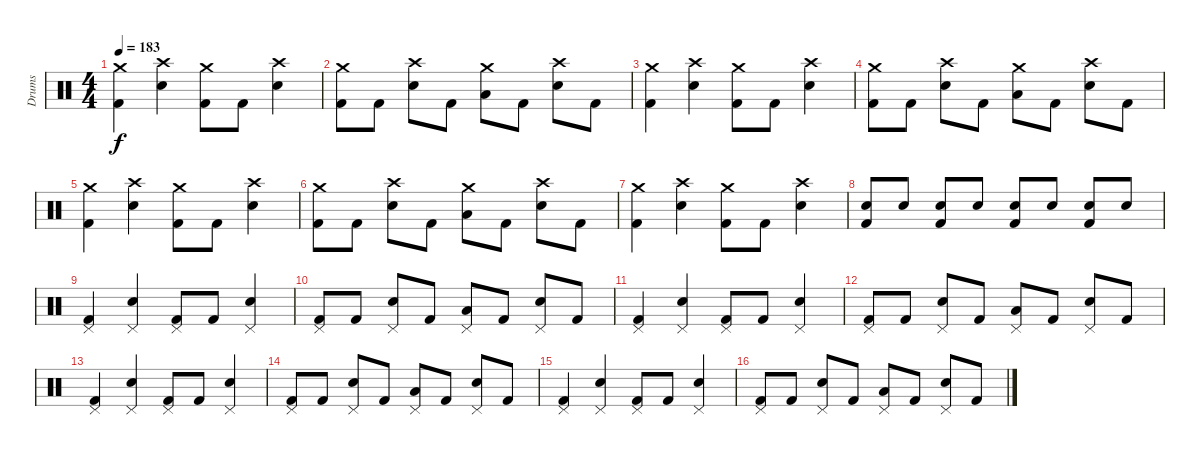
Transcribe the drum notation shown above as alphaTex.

\track ("Drums" "Drums") {instrument percussion}
\staff {score}
\articulation defaults
\ts (4 4)
\tempo 183
\clef neutral
\ks c
("Kick (hit) 2" "Crash medium (hit)").4{dy f} ("Snare (hit) 2" "Crash high (hit)").4 ("Kick (hit) 2" "Crash medium (hit)").8 "Kick (hit) 2".8 ("Snare (hit) 2" "Crash high (hit)").4 |
("Kick (hit) 2" "Crash medium (hit)").8 "Kick (hit) 2".8 ("Snare (hit) 2" "Crash high (hit)").8 "Kick (hit) 2".8 ("Low Tom (hit)" "Crash medium (hit)").8 "Kick (hit) 2".8 ("Snare (hit) 2" "Crash high (hit)").8 "Kick (hit) 2".8 |
("Kick (hit) 2" "Crash medium (hit)").4 ("Snare (hit) 2" "Crash high (hit)").4 ("Kick (hit) 2" "Crash medium (hit)").8 "Kick (hit) 2".8 ("Snare (hit) 2" "Crash high (hit)").4 |
("Kick (hit) 2" "Crash medium (hit)").8 "Kick (hit) 2".8 ("Snare (hit) 2" "Crash high (hit)").8 "Kick (hit) 2".8 ("Low Tom (hit)" "Crash medium (hit)").8 "Kick (hit) 2".8 ("Snare (hit) 2" "Crash high (hit)").8 "Kick (hit) 2".8 |
("Kick (hit) 2" "Crash medium (hit)").4 ("Snare (hit) 2" "Crash high (hit)").4 ("Kick (hit) 2" "Crash medium (hit)").8 "Kick (hit) 2".8 ("Snare (hit) 2" "Crash high (hit)").4 |
("Kick (hit) 2" "Crash medium (hit)").8 "Kick (hit) 2".8 ("Snare (hit) 2" "Crash high (hit)").8 "Kick (hit) 2".8 ("Low Tom (hit)" "Crash medium (hit)").8 "Kick (hit) 2".8 ("Snare (hit) 2" "Crash high (hit)").8 "Kick (hit) 2".8 |
("Kick (hit) 2" "Crash medium (hit)").4 ("Snare (hit) 2" "Crash high (hit)").4 ("Kick (hit) 2" "Crash medium (hit)").8 "Kick (hit) 2".8 ("Snare (hit) 2" "Crash high (hit)").4 |
("Kick (hit) 2" "Snare (hit) 2").8 "Snare (hit) 2".8 ("Kick (hit) 2" "Snare (hit) 2").8 "Snare (hit) 2".8 ("Kick (hit) 2" "Snare (hit) 2").8 "Snare (hit) 2".8 ("Kick (hit) 2" "Snare (hit) 2").8 "Snare (hit) 2".8 |
("Pedal Hi-Hat (hit)" "Kick (hit) 2").4 ("Pedal Hi-Hat (hit)" "Snare (hit) 2").4 ("Pedal Hi-Hat (hit)" "Kick (hit) 2").8 "Kick (hit) 2".8 ("Pedal Hi-Hat (hit)" "Snare (hit) 2").4 |
("Pedal Hi-Hat (hit)" "Kick (hit) 2").8 "Kick (hit) 2".8 ("Pedal Hi-Hat (hit)" "Snare (hit) 2").8 "Kick (hit) 2".8 ("Pedal Hi-Hat (hit)" "Low Tom (hit)").8 "Kick (hit) 2".8 ("Pedal Hi-Hat (hit)" "Snare (hit) 2").8 "Kick (hit) 2".8 |
("Pedal Hi-Hat (hit)" "Kick (hit) 2").4 ("Pedal Hi-Hat (hit)" "Snare (hit) 2").4 ("Pedal Hi-Hat (hit)" "Kick (hit) 2").8 "Kick (hit) 2".8 ("Pedal Hi-Hat (hit)" "Snare (hit) 2").4 |
("Pedal Hi-Hat (hit)" "Kick (hit) 2").8 "Kick (hit) 2".8 ("Pedal Hi-Hat (hit)" "Snare (hit) 2").8 "Kick (hit) 2".8 ("Pedal Hi-Hat (hit)" "Low Tom (hit)").8 "Kick (hit) 2".8 ("Pedal Hi-Hat (hit)" "Snare (hit) 2").8 "Kick (hit) 2".8 |
("Pedal Hi-Hat (hit)" "Kick (hit) 2").4 ("Pedal Hi-Hat (hit)" "Snare (hit) 2").4 ("Pedal Hi-Hat (hit)" "Kick (hit) 2").8 "Kick (hit) 2".8 ("Pedal Hi-Hat (hit)" "Snare (hit) 2").4 |
("Pedal Hi-Hat (hit)" "Kick (hit) 2").8 "Kick (hit) 2".8 ("Pedal Hi-Hat (hit)" "Snare (hit) 2").8 "Kick (hit) 2".8 ("Pedal Hi-Hat (hit)" "Low Tom (hit)").8 "Kick (hit) 2".8 ("Pedal Hi-Hat (hit)" "Snare (hit) 2").8 "Kick (hit) 2".8 |
("Pedal Hi-Hat (hit)" "Kick (hit) 2").4 ("Pedal Hi-Hat (hit)" "Snare (hit) 2").4 ("Pedal Hi-Hat (hit)" "Kick (hit) 2").8 "Kick (hit) 2".8 ("Pedal Hi-Hat (hit)" "Snare (hit) 2").4 |
("Pedal Hi-Hat (hit)" "Kick (hit) 2").8 "Kick (hit) 2".8 ("Pedal Hi-Hat (hit)" "Snare (hit) 2").8 "Kick (hit) 2".8 ("Pedal Hi-Hat (hit)" "Low Tom (hit)").8 "Kick (hit) 2".8 ("Pedal Hi-Hat (hit)" "Snare (hit) 2").8 "Kick (hit) 2".8
